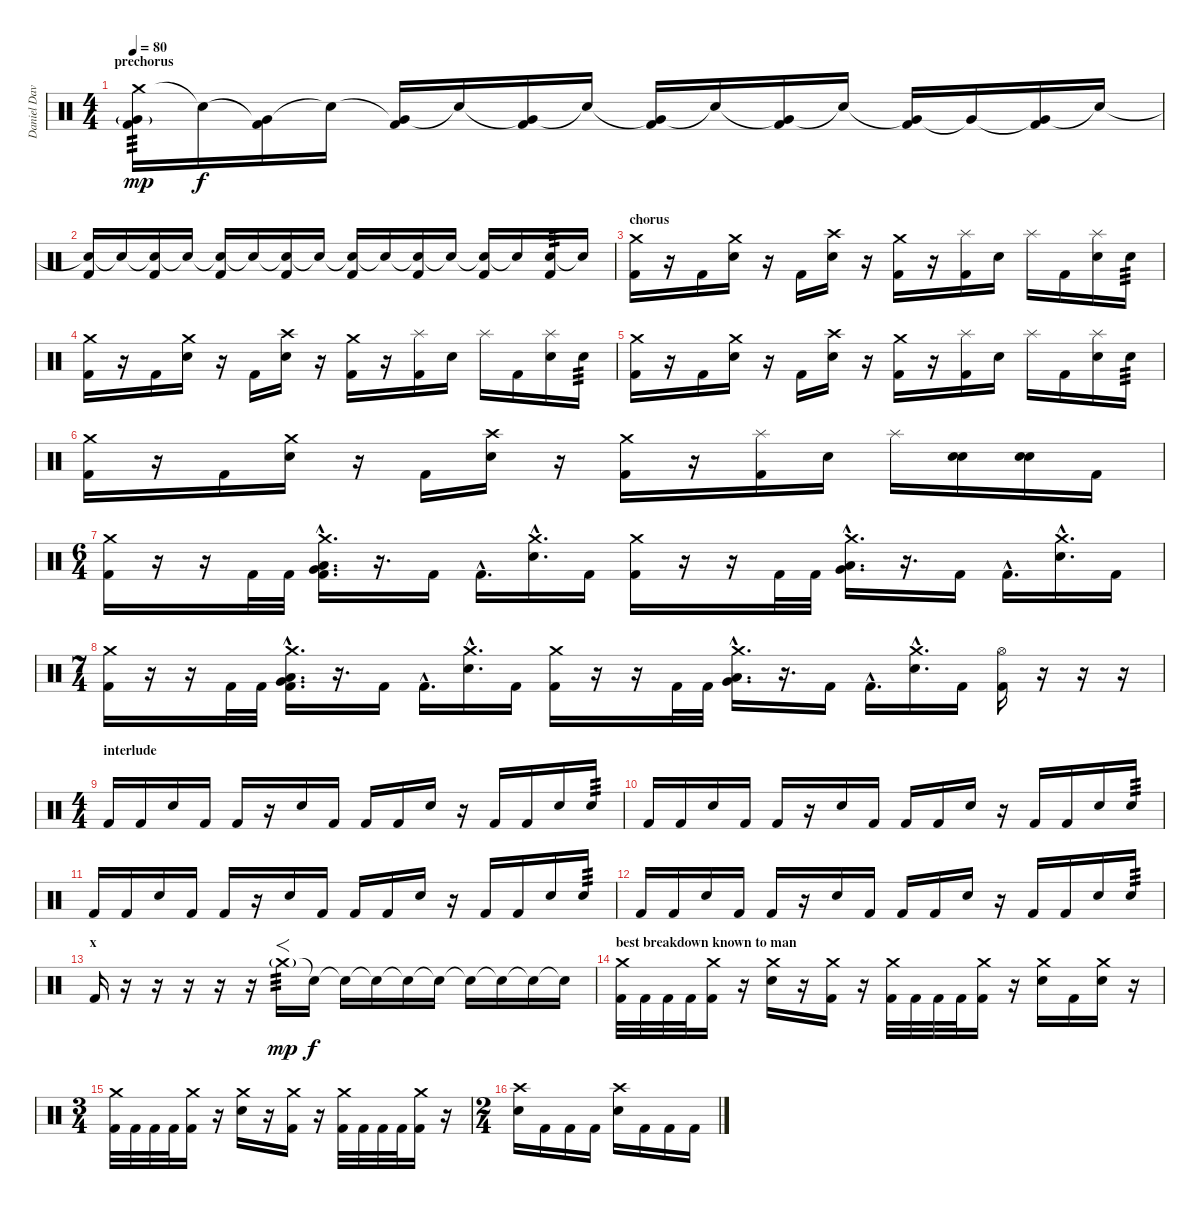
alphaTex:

\track ("Daniel Davison" "Daniel Dav") {instrument percussion}
\staff {score}
\articulation defaults
\ts (4 4)
\section ("" "prechorus")
\tempo 80
\clef neutral
\ks c
("Crash medium (hit)" "Very Low Tom (hit)"{g} "Kick (hit) 2").16{tp 3 dy mp} "Snare (hit)"{t}.16{dy f} ("Very Low Tom (hit)"{t} "Kick (hit) 2").16 "Snare (hit)"{t}.16 ("Very Low Tom (hit)"{t} "Kick (hit) 2").16 "Snare (hit)"{t}.16 ("Very Low Tom (hit)"{t} "Kick (hit) 2").16 "Snare (hit)"{t}.16 ("Very Low Tom (hit)"{t} "Kick (hit) 2").16 "Snare (hit)"{t}.16 ("Very Low Tom (hit)"{t} "Kick (hit) 2").16 "Snare (hit)"{t}.16 ("Very Low Tom (hit)"{t} "Kick (hit) 2").16 "Very Low Tom (hit)"{t}.16 ("Very Low Tom (hit)"{t} "Kick (hit) 2").16 "Snare (hit)"{t}.16 |
("Snare (hit)"{t} "Kick (hit) 2").16 "Snare (hit)"{t}.16 ("Snare (hit)"{t} "Kick (hit) 2").16 "Snare (hit)"{t}.16 ("Snare (hit)"{t} "Kick (hit) 2").16 "Snare (hit)"{t}.16 ("Snare (hit)"{t} "Kick (hit) 2").16 "Snare (hit)"{t}.16 ("Electric Snare (hit)"{t} "Kick (hit) 2").16 "Snare (hit)"{t}.16 ("Snare (hit)"{t} "Kick (hit) 2").16 "Snare (hit)"{t}.16 ("Snare (hit)"{t} "Kick (hit) 2").16 "Snare (hit)"{t}.16 ("Electric Snare (hit)" "Kick (hit) 2").16{tp 3} "Snare (hit)"{t}.16 |
\section ("" "chorus")
("Crash medium (hit)" "Kick (hit) 2").16 r.16 "Kick (hit) 2".16 ("Crash medium (hit)" "Electric Snare (hit)").16 r.16 "Kick (hit) 2".16 ("Crash high (hit)" "Electric Snare (hit)").16 r.16 ("Crash medium (hit)" "Kick (hit) 2").16 r.16 ("Splash (hit)" "Kick (hit) 2").16 "Electric Snare (hit)".16 "Splash (hit)".16 "Kick (hit) 2".16 ("Splash (hit)" "Electric Snare (hit)").16 "Electric Snare (hit)".16{tp 3} |
("Crash medium (hit)" "Kick (hit) 2").16 r.16 "Kick (hit) 2".16 ("Crash medium (hit)" "Electric Snare (hit)").16 r.16 "Kick (hit) 2".16 ("Crash high (hit)" "Electric Snare (hit)").16 r.16 ("Crash medium (hit)" "Kick (hit) 2").16 r.16 ("Splash (hit)" "Kick (hit) 2").16 "Electric Snare (hit)".16 "Splash (hit)".16 "Kick (hit) 2".16 ("Splash (hit)" "Electric Snare (hit)").16 "Electric Snare (hit)".16{tp 3} |
("Crash medium (hit)" "Kick (hit) 2").16 r.16 "Kick (hit) 2".16 ("Crash medium (hit)" "Electric Snare (hit)").16 r.16 "Kick (hit) 2".16 ("Crash high (hit)" "Electric Snare (hit)").16 r.16 ("Crash medium (hit)" "Kick (hit) 2").16 r.16 ("Splash (hit)" "Kick (hit) 2").16 "Electric Snare (hit)".16 "Splash (hit)".16 "Kick (hit) 2".16 ("Splash (hit)" "Electric Snare (hit)").16 "Electric Snare (hit)".16{tp 3} |
("Crash medium (hit)" "Kick (hit) 2").16 r.16 "Kick (hit) 2".16 ("Crash medium (hit)" "Electric Snare (hit)").16 r.16 "Kick (hit) 2".16 ("Crash high (hit)" "Electric Snare (hit)").16 r.16 ("Crash medium (hit)" "Kick (hit) 2").16 r.16 ("Splash (hit)" "Kick (hit) 2").16 "Electric Snare (hit)".16 "Splash (hit)".16 ("Electric Snare (hit)" "Electric Snare (hit)").16 ("Electric Snare (hit)" "Electric Snare (hit)").16 "Kick (hit) 2".16 |
\ts (6 4)
("Crash medium (hit)" "Kick (hit) 2").16 r.16 r.16 "Kick (hit) 2".32 "Kick (hit) 2".32 ("Low Tom (hit)"{hac} "Crash medium (hit)"{hac} "Very Low Tom (hit)"{hac} "Kick (hit) 2"{hac}).16{d} r.16{d} "Kick (hit) 2".16 "Kick (hit) 2"{hac}.16{d} ("Crash medium (hit)"{hac} "Electric Snare (hit)"{hac}).16{d} "Kick (hit) 2".16 ("Crash medium (hit)" "Kick (hit) 2").16 r.16 r.16 "Kick (hit) 2".32 "Kick (hit) 2".32 ("Low Tom (hit)"{hac} "Crash medium (hit)"{hac} "Very Low Tom (hit)"{hac}).16{d} r.16{d} "Kick (hit) 2".16 "Kick (hit) 2"{hac}.16{d} ("Crash medium (hit)"{hac} "Electric Snare (hit)"{hac}).16{d} "Kick (hit) 2".16 |
\ts (7 4)
("Crash medium (hit)" "Kick (hit) 2").16 r.16 r.16 "Kick (hit) 2".32 "Kick (hit) 2".32 ("Low Tom (hit)"{hac} "Crash medium (hit)"{hac} "Very Low Tom (hit)"{hac} "Kick (hit) 2"{hac}).16{d} r.16{d} "Kick (hit) 2".16 "Kick (hit) 2"{hac}.16{d} ("Crash medium (hit)"{hac} "Electric Snare (hit)"{hac}).16{d} "Kick (hit) 2".16 ("Crash medium (hit)" "Kick (hit) 2").16 r.16 r.16 "Kick (hit) 2".32 "Kick (hit) 2".32 ("Low Tom (hit)"{hac} "Crash medium (hit)"{hac} "Very Low Tom (hit)"{hac}).16{d} r.16{d} "Kick (hit) 2".16 "Kick (hit) 2"{hac}.16{d} ("Crash medium (hit)"{hac} "Electric Snare (hit)"{hac}).16{d} "Kick (hit) 2".16 ("Hi-Hat (open)" "Kick (hit) 2").16 r.16 r.16 r.16 |
\ts (4 4)
\section ("" "interlude")
"Kick (hit) 2".16 "Kick (hit) 2".16 "Electric Snare (hit)".16 "Kick (hit) 2".16 "Kick (hit) 2".16 r.16 "Electric Snare (hit)".16 "Kick (hit) 2".16 "Kick (hit) 2".16 "Kick (hit) 2".16 "Electric Snare (hit)".16 r.16 "Kick (hit) 2".16 "Kick (hit) 2".16 "Electric Snare (hit)".16 "Electric Snare (hit)".16{tp 3} |
"Kick (hit) 2".16 "Kick (hit) 2".16 "Electric Snare (hit)".16 "Kick (hit) 2".16 "Kick (hit) 2".16 r.16 "Electric Snare (hit)".16 "Kick (hit) 2".16 "Kick (hit) 2".16 "Kick (hit) 2".16 "Electric Snare (hit)".16 r.16 "Kick (hit) 2".16 "Kick (hit) 2".16 "Electric Snare (hit)".16 "Electric Snare (hit)".16{tp 3} |
"Kick (hit) 2".16 "Kick (hit) 2".16 "Electric Snare (hit)".16 "Kick (hit) 2".16 "Kick (hit) 2".16 r.16 "Electric Snare (hit)".16 "Kick (hit) 2".16 "Kick (hit) 2".16 "Kick (hit) 2".16 "Electric Snare (hit)".16 r.16 "Kick (hit) 2".16 "Kick (hit) 2".16 "Electric Snare (hit)".16 "Electric Snare (hit)".16{tp 3} |
"Kick (hit) 2".16 "Kick (hit) 2".16 "Electric Snare (hit)".16 "Kick (hit) 2".16 "Kick (hit) 2".16 r.16 "Electric Snare (hit)".16 "Kick (hit) 2".16 "Kick (hit) 2".16 "Kick (hit) 2".16 "Electric Snare (hit)".16 r.16 "Kick (hit) 2".16 "Kick (hit) 2".16 "Electric Snare (hit)".16 "Electric Snare (hit)".16{tp 3} |
\section ("" "x")
"Kick (hit) 2".16 r.16 r.16 r.16 r.16 r.16 "Crash medium (hit)"{g}.16{f tp 3 dy mp} "Snare (hit)"{t}.16{dy f} "Snare (hit)"{t}.16 "Snare (hit)"{t}.16 "Snare (hit)"{t}.16 "Snare (hit)"{t}.16 "Snare (hit)"{t}.16 "Snare (hit)"{t}.16 "Snare (hit)"{t}.16 "Snare (hit)"{t}.16 |
\section ("" "best breakdown known to man")
("Crash medium (hit)" "Kick (hit) 2").32 "Kick (hit) 2".32 "Kick (hit) 2".32 "Kick (hit) 2".32 ("Crash medium (hit)" "Kick (hit) 2").16 r.16 ("Crash medium (hit)" "Electric Snare (hit)").16 r.16 ("Crash medium (hit)" "Kick (hit) 2").16 r.16 ("Crash medium (hit)" "Kick (hit) 2").32 "Kick (hit) 2".32 "Kick (hit) 2".32 "Kick (hit) 2".32 ("Crash medium (hit)" "Kick (hit) 2").16 r.16 ("Crash medium (hit)" "Electric Snare (hit)").16 "Kick (hit) 2".16 ("Crash medium (hit)" "Electric Snare (hit)").16 r.16 |
\ts (3 4)
("Crash medium (hit)" "Kick (hit) 2").32 "Kick (hit) 2".32 "Kick (hit) 2".32 "Kick (hit) 2".32 ("Crash medium (hit)" "Kick (hit) 2").16 r.16 ("Crash medium (hit)" "Electric Snare (hit)").16 r.16 ("Crash medium (hit)" "Kick (hit) 2").16 r.16 ("Crash medium (hit)" "Kick (hit) 2").32 "Kick (hit) 2".32 "Kick (hit) 2".32 "Kick (hit) 2".32 ("Crash medium (hit)" "Kick (hit) 2").16 r.16 |
\ts (2 4)
("Crash high (hit)" "Electric Snare (hit)").16 "Kick (hit) 2".16 "Kick (hit) 2".16 "Kick (hit) 2".16 ("Crash high (hit)" "Electric Snare (hit)").16 "Kick (hit) 2".16 "Kick (hit) 2".16 "Kick (hit) 2".16
